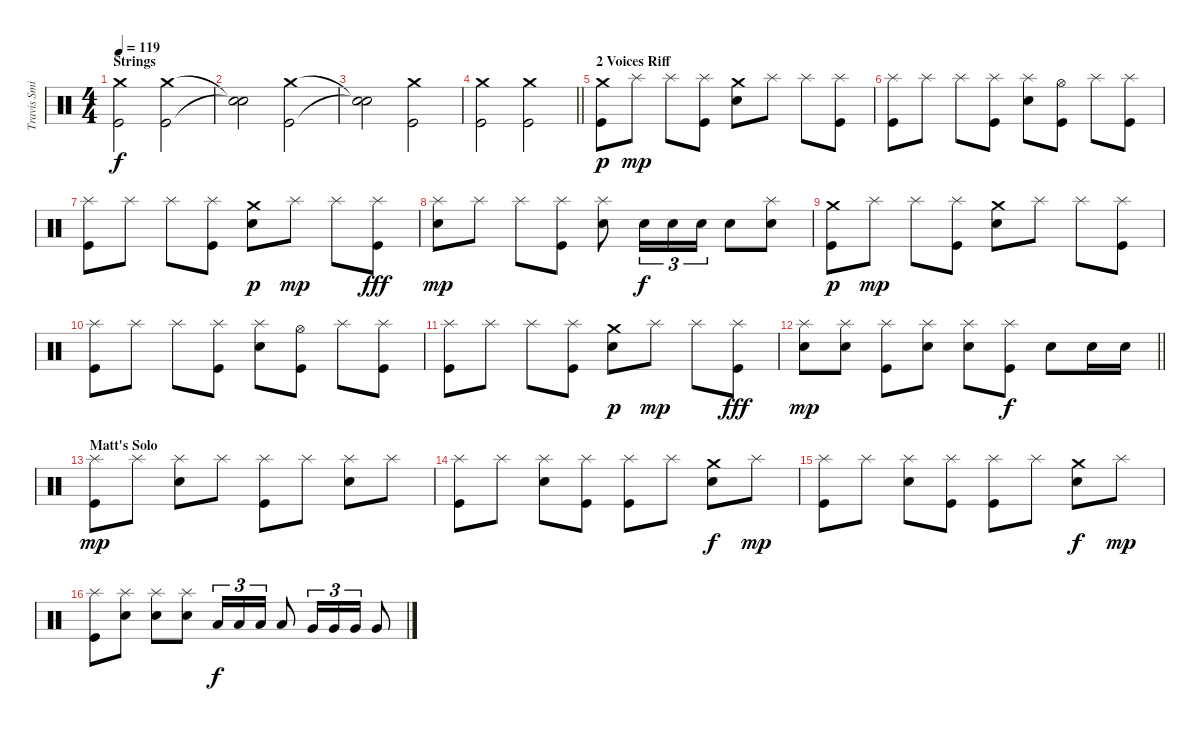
\track ("Travis Smith (Drums)" "Travis Smi") {instrument percussion}
\staff {score}
\articulation defaults
\ts (4 4)
\section ("" "Strings")
\tempo 119
\clef neutral
\ks c
("Crash medium (hit)" "Kick (hit)").2{dy f} ("Crash medium (hit)" "Kick (hit)").2 |
("Snare (hit)"{t} "Snare (hit)"{t}).2 ("Crash medium (hit)" "Kick (hit)").2 |
("Snare (hit)"{t} "Snare (hit)"{t}).2 ("Crash medium (hit)" "Kick (hit)").2 |
\barLineRight lightlight
("Crash medium (hit)" "Kick (hit)").2 ("Crash medium (hit)" "Kick (hit)").2 |
\section ("" "2 Voices Riff")
("Crash medium (hit)" "Kick (hit)").8{dy p} "Splash (hit)".8{dy mp} "Splash (hit)".8 ("Splash (hit)" "Kick (hit)").8 ("Crash medium (hit)" "Electric Snare (hit)").8 "Splash (hit)".8 "Splash (hit)".8 ("Splash (hit)" "Kick (hit)").8 |
("Splash (hit)" "Kick (hit)").8 "Splash (hit)".8 "Splash (hit)".8 ("Splash (hit)" "Kick (hit)").8 ("Splash (hit)" "Electric Snare (hit)").8 ("Hi-Hat (open)" "Kick (hit)").8 "Splash (hit)".8 ("Splash (hit)" "Kick (hit)").8 |
("Splash (hit)" "Kick (hit)").8 "Splash (hit)".8 "Splash (hit)".8 ("Splash (hit)" "Kick (hit)").8 ("Crash medium (hit)" "Electric Snare (hit)").8{dy p} "Splash (hit)".8{dy mp} "Splash (hit)".8 ("Splash (hit)" "Kick (hit)").8{dy fff} |
("Splash (hit)" "Electric Snare (hit)").8{dy mp} "Splash (hit)".8 "Splash (hit)".8 ("Splash (hit)" "Kick (hit)").8 ("Splash (hit)" "Electric Snare (hit)").8 "Electric Snare (hit)".16{tu (3 2) dy f} "Electric Snare (hit)".16{tu (3 2)} "Electric Snare (hit)".16{tu (3 2)} "Electric Snare (hit)".8 ("Splash (hit)" "Electric Snare (hit)").8 |
("Crash medium (hit)" "Kick (hit)").8{dy p} "Splash (hit)".8{dy mp} "Splash (hit)".8 ("Splash (hit)" "Kick (hit)").8 ("Crash medium (hit)" "Electric Snare (hit)").8 "Splash (hit)".8 "Splash (hit)".8 ("Splash (hit)" "Kick (hit)").8 |
("Splash (hit)" "Kick (hit)").8 "Splash (hit)".8 "Splash (hit)".8 ("Splash (hit)" "Kick (hit)").8 ("Splash (hit)" "Electric Snare (hit)").8 ("Hi-Hat (open)" "Kick (hit)").8 "Splash (hit)".8 ("Splash (hit)" "Kick (hit)").8 |
("Splash (hit)" "Kick (hit)").8 "Splash (hit)".8 "Splash (hit)".8 ("Splash (hit)" "Kick (hit)").8 ("Crash medium (hit)" "Electric Snare (hit)").8{dy p} "Splash (hit)".8{dy mp} "Splash (hit)".8 ("Splash (hit)" "Kick (hit)").8{dy fff} |
\barLineRight lightlight
("Splash (hit)" "Electric Snare (hit)").8{dy mp} ("Splash (hit)" "Electric Snare (hit)").8 ("Splash (hit)" "Kick (hit)").8 ("Splash (hit)" "Electric Snare (hit)").8 ("Splash (hit)" "Electric Snare (hit)").8 ("Splash (hit)" "Kick (hit)").8{dy f} "Electric Snare (hit)".8 "Electric Snare (hit)".16 "Electric Snare (hit)".16 |
\section ("" "Matt's Solo")
("Splash (hit)" "Kick (hit)").8{dy mp} "Splash (hit)".8 ("Splash (hit)" "Electric Snare (hit)").8 "Splash (hit)".8 ("Splash (hit)" "Kick (hit)").8 "Splash (hit)".8 ("Splash (hit)" "Electric Snare (hit)").8 "Splash (hit)".8 |
("Splash (hit)" "Kick (hit)").8 "Splash (hit)".8 ("Splash (hit)" "Electric Snare (hit)").8 ("Splash (hit)" "Kick (hit)").8 ("Splash (hit)" "Kick (hit)").8 "Splash (hit)".8 ("Crash medium (hit)" "Electric Snare (hit)").8{dy f} "Splash (hit)".8{dy mp} |
("Splash (hit)" "Kick (hit)").8 "Splash (hit)".8 ("Splash (hit)" "Electric Snare (hit)").8 ("Splash (hit)" "Kick (hit)").8 ("Splash (hit)" "Kick (hit)").8 "Splash (hit)".8 ("Crash medium (hit)" "Electric Snare (hit)").8{dy f} "Splash (hit)".8{dy mp} |
("Splash (hit)" "Kick (hit)").8 ("Splash (hit)" "Electric Snare (hit)").8 ("Splash (hit)" "Electric Snare (hit)").8 ("Splash (hit)" "Electric Snare (hit)").8 "Low Tom (hit)".16{tu (3 2) dy f} "Low Tom (hit)".16{tu (3 2)} "Low Tom (hit)".16{tu (3 2)} "Low Tom (hit)".8 "Very Low Tom (hit)".16{tu (3 2)} "Very Low Tom (hit)".16{tu (3 2)} "Very Low Tom (hit)".16{tu (3 2)} "Very Low Tom (hit)".8
